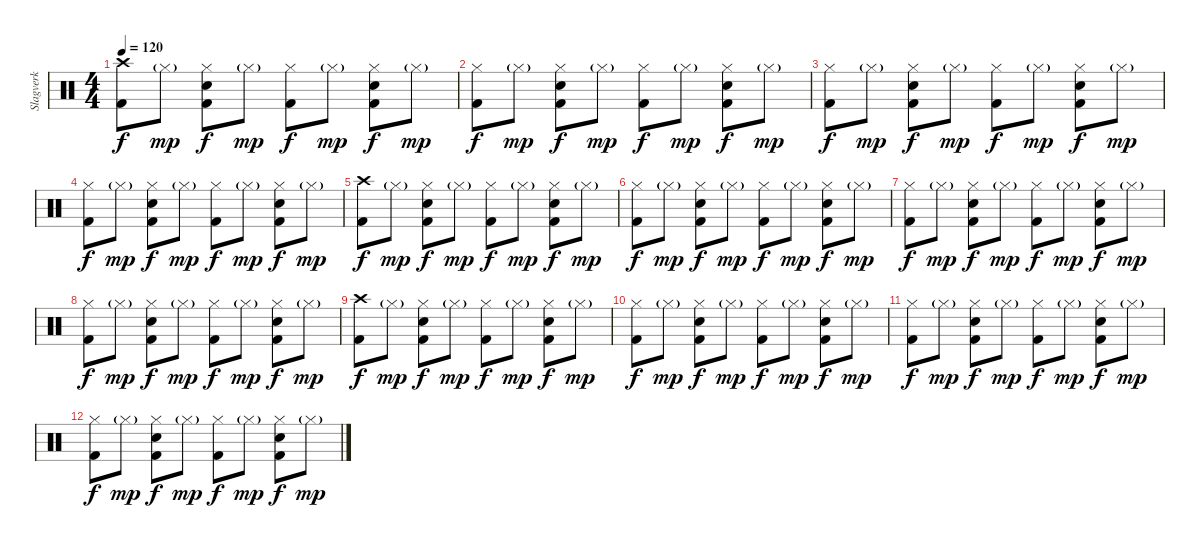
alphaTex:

\track ("Slagverk" "Slagverk") {instrument percussion}
\staff {score}
\articulation defaults
\ts (4 4)
\tempo 120
\clef neutral
\ks c
("Kick (hit) 2" "Crash high (hit)").8{dy f} "Hi-Hat (closed)"{g}.8{dy mp} ("Kick (hit) 2" "Hi-Hat (closed)" "Snare (hit) 2").8{dy f} "Hi-Hat (closed)"{g}.8{dy mp} ("Kick (hit) 2" "Hi-Hat (closed)").8{dy f} "Hi-Hat (closed)"{g}.8{dy mp} ("Kick (hit) 2" "Hi-Hat (closed)" "Snare (hit) 2").8{dy f} "Hi-Hat (closed)"{g}.8{dy mp} |
("Kick (hit) 2" "Hi-Hat (closed)").8{dy f} "Hi-Hat (closed)"{g}.8{dy mp} ("Kick (hit) 2" "Hi-Hat (closed)" "Snare (hit) 2").8{dy f} "Hi-Hat (closed)"{g}.8{dy mp} ("Kick (hit) 2" "Hi-Hat (closed)").8{dy f} "Hi-Hat (closed)"{g}.8{dy mp} ("Kick (hit) 2" "Hi-Hat (closed)" "Snare (hit) 2").8{dy f} "Hi-Hat (closed)"{g}.8{dy mp} |
("Kick (hit) 2" "Hi-Hat (closed)").8{dy f} "Hi-Hat (closed)"{g}.8{dy mp} ("Kick (hit) 2" "Hi-Hat (closed)" "Snare (hit) 2").8{dy f} "Hi-Hat (closed)"{g}.8{dy mp} ("Kick (hit) 2" "Hi-Hat (closed)").8{dy f} "Hi-Hat (closed)"{g}.8{dy mp} ("Kick (hit) 2" "Hi-Hat (closed)" "Snare (hit) 2").8{dy f} "Hi-Hat (closed)"{g}.8{dy mp} |
("Kick (hit) 2" "Hi-Hat (closed)").8{dy f} "Hi-Hat (closed)"{g}.8{dy mp} ("Kick (hit) 2" "Hi-Hat (closed)" "Snare (hit) 2").8{dy f} "Hi-Hat (closed)"{g}.8{dy mp} ("Kick (hit) 2" "Hi-Hat (closed)").8{dy f} "Hi-Hat (closed)"{g}.8{dy mp} ("Kick (hit) 2" "Hi-Hat (closed)" "Snare (hit) 2").8{dy f} "Hi-Hat (closed)"{g}.8{dy mp} |
("Kick (hit) 2" "Crash high (hit)").8{dy f} "Hi-Hat (closed)"{g}.8{dy mp} ("Kick (hit) 2" "Hi-Hat (closed)" "Snare (hit) 2").8{dy f} "Hi-Hat (closed)"{g}.8{dy mp} ("Kick (hit) 2" "Hi-Hat (closed)").8{dy f} "Hi-Hat (closed)"{g}.8{dy mp} ("Kick (hit) 2" "Hi-Hat (closed)" "Snare (hit) 2").8{dy f} "Hi-Hat (closed)"{g}.8{dy mp} |
("Kick (hit) 2" "Hi-Hat (closed)").8{dy f} "Hi-Hat (closed)"{g}.8{dy mp} ("Kick (hit) 2" "Hi-Hat (closed)" "Snare (hit) 2").8{dy f} "Hi-Hat (closed)"{g}.8{dy mp} ("Kick (hit) 2" "Hi-Hat (closed)").8{dy f} "Hi-Hat (closed)"{g}.8{dy mp} ("Kick (hit) 2" "Hi-Hat (closed)" "Snare (hit) 2").8{dy f} "Hi-Hat (closed)"{g}.8{dy mp} |
("Kick (hit) 2" "Hi-Hat (closed)").8{dy f} "Hi-Hat (closed)"{g}.8{dy mp} ("Kick (hit) 2" "Hi-Hat (closed)" "Snare (hit) 2").8{dy f} "Hi-Hat (closed)"{g}.8{dy mp} ("Kick (hit) 2" "Hi-Hat (closed)").8{dy f} "Hi-Hat (closed)"{g}.8{dy mp} ("Kick (hit) 2" "Hi-Hat (closed)" "Snare (hit) 2").8{dy f} "Hi-Hat (closed)"{g}.8{dy mp} |
("Kick (hit) 2" "Hi-Hat (closed)").8{dy f} "Hi-Hat (closed)"{g}.8{dy mp} ("Kick (hit) 2" "Hi-Hat (closed)" "Snare (hit) 2").8{dy f} "Hi-Hat (closed)"{g}.8{dy mp} ("Kick (hit) 2" "Hi-Hat (closed)").8{dy f} "Hi-Hat (closed)"{g}.8{dy mp} ("Kick (hit) 2" "Hi-Hat (closed)" "Snare (hit) 2").8{dy f} "Hi-Hat (closed)"{g}.8{dy mp} |
("Kick (hit) 2" "Crash high (hit)").8{dy f} "Hi-Hat (closed)"{g}.8{dy mp} ("Kick (hit) 2" "Hi-Hat (closed)" "Snare (hit) 2").8{dy f} "Hi-Hat (closed)"{g}.8{dy mp} ("Kick (hit) 2" "Hi-Hat (closed)").8{dy f} "Hi-Hat (closed)"{g}.8{dy mp} ("Kick (hit) 2" "Hi-Hat (closed)" "Snare (hit) 2").8{dy f} "Hi-Hat (closed)"{g}.8{dy mp} |
("Kick (hit) 2" "Hi-Hat (closed)").8{dy f} "Hi-Hat (closed)"{g}.8{dy mp} ("Kick (hit) 2" "Hi-Hat (closed)" "Snare (hit) 2").8{dy f} "Hi-Hat (closed)"{g}.8{dy mp} ("Kick (hit) 2" "Hi-Hat (closed)").8{dy f} "Hi-Hat (closed)"{g}.8{dy mp} ("Kick (hit) 2" "Hi-Hat (closed)" "Snare (hit) 2").8{dy f} "Hi-Hat (closed)"{g}.8{dy mp} |
("Kick (hit) 2" "Hi-Hat (closed)").8{dy f} "Hi-Hat (closed)"{g}.8{dy mp} ("Kick (hit) 2" "Hi-Hat (closed)" "Snare (hit) 2").8{dy f} "Hi-Hat (closed)"{g}.8{dy mp} ("Kick (hit) 2" "Hi-Hat (closed)").8{dy f} "Hi-Hat (closed)"{g}.8{dy mp} ("Kick (hit) 2" "Hi-Hat (closed)" "Snare (hit) 2").8{dy f} "Hi-Hat (closed)"{g}.8{dy mp} |
("Kick (hit) 2" "Hi-Hat (closed)").8{dy f} "Hi-Hat (closed)"{g}.8{dy mp} ("Kick (hit) 2" "Hi-Hat (closed)" "Snare (hit) 2").8{dy f} "Hi-Hat (closed)"{g}.8{dy mp} ("Kick (hit) 2" "Hi-Hat (closed)").8{dy f} "Hi-Hat (closed)"{g}.8{dy mp} ("Kick (hit) 2" "Hi-Hat (closed)" "Snare (hit) 2").8{dy f} "Hi-Hat (closed)"{g}.8{dy mp}
